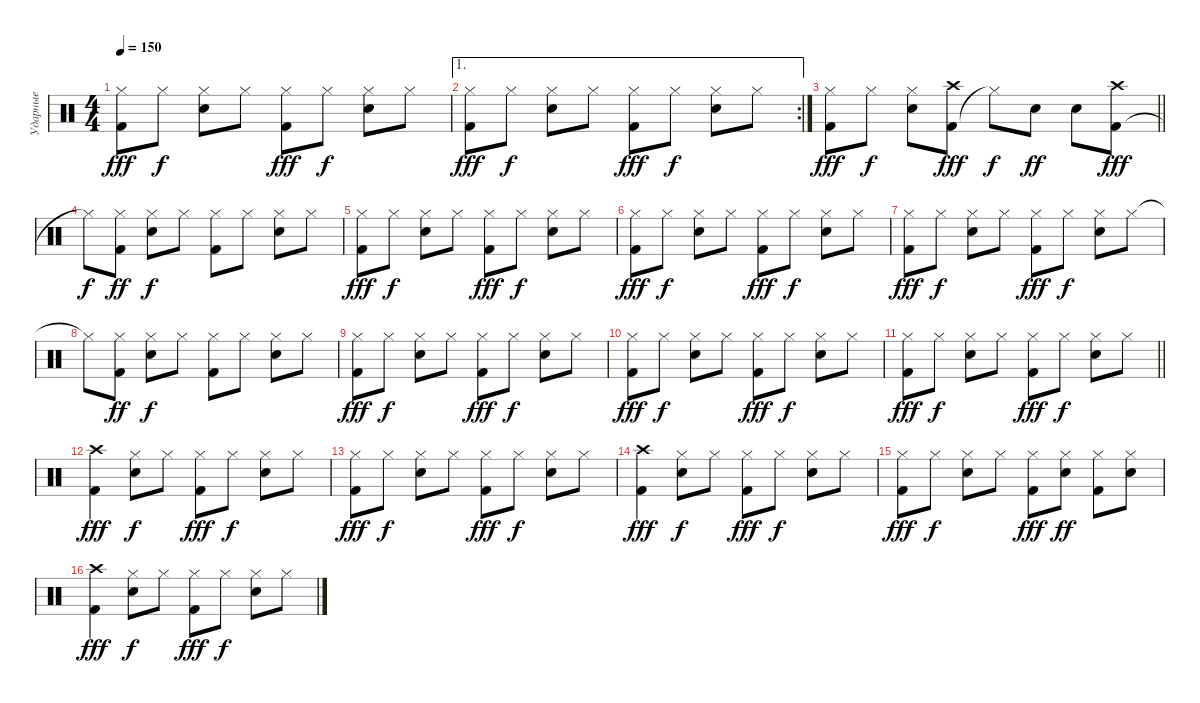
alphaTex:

\track ("Ударные" "Ударные") {instrument percussion}
\staff
\articulation defaults
\ts (4 4)
\tempo 150
\clef neutral
\ks c
("Kick (hit) 2" "Hi-Hat (closed)").8{dy fff} "Hi-Hat (closed)".8{dy f} ("Snare (hit) 2" "Hi-Hat (closed)").8 "Hi-Hat (closed)".8 ("Kick (hit) 2" "Hi-Hat (closed)").8{dy fff} "Hi-Hat (closed)".8{dy f} ("Snare (hit) 2" "Hi-Hat (closed)").8 "Hi-Hat (closed)".8 |
\ae 1
\rc 2
("Kick (hit) 2" "Hi-Hat (closed)").8{dy fff} "Hi-Hat (closed)".8{dy f} ("Snare (hit) 2" "Hi-Hat (closed)").8 "Hi-Hat (closed)".8 ("Kick (hit) 2" "Hi-Hat (closed)").8{dy fff} "Hi-Hat (closed)".8{dy f} ("Snare (hit) 2" "Hi-Hat (closed)").8 "Hi-Hat (closed)".8 |
\barLineRight lightlight
("Kick (hit) 2" "Hi-Hat (closed)").8{dy fff} "Hi-Hat (closed)".8{dy f} ("Snare (hit) 2" "Hi-Hat (closed)").8 ("Kick (hit) 2" "Crash high (hit)").8{dy fff} "Hi-Hat (closed)"{t}.8{dy f} "Snare (hit) 2".8{dy ff} "Snare (hit) 2".8 ("Kick (hit) 2" "Crash high (hit)").8{dy fff} |
"Hi-Hat (closed)"{t}.8{dy f} ("Kick (hit) 2" "Hi-Hat (closed)").8{dy ff} ("Snare (hit) 2" "Hi-Hat (closed)").8{dy f} "Hi-Hat (closed)".8 ("Kick (hit) 2" "Hi-Hat (closed)").8 "Hi-Hat (closed)".8 ("Snare (hit) 2" "Hi-Hat (closed)").8 "Hi-Hat (closed)".8 |
("Kick (hit) 2" "Hi-Hat (closed)").8{dy fff} "Hi-Hat (closed)".8{dy f} ("Snare (hit) 2" "Hi-Hat (closed)").8 "Hi-Hat (closed)".8 ("Kick (hit) 2" "Hi-Hat (closed)").8{dy fff} "Hi-Hat (closed)".8{dy f} ("Snare (hit) 2" "Hi-Hat (closed)").8 "Hi-Hat (closed)".8 |
("Kick (hit) 2" "Hi-Hat (closed)").8{dy fff} "Hi-Hat (closed)".8{dy f} ("Snare (hit) 2" "Hi-Hat (closed)").8 "Hi-Hat (closed)".8 ("Kick (hit) 2" "Hi-Hat (closed)").8{dy fff} "Hi-Hat (closed)".8{dy f} ("Snare (hit) 2" "Hi-Hat (closed)").8 "Hi-Hat (closed)".8 |
("Kick (hit) 2" "Hi-Hat (closed)").8{dy fff} "Hi-Hat (closed)".8{dy f} ("Snare (hit) 2" "Hi-Hat (closed)").8 "Hi-Hat (closed)".8 ("Kick (hit) 2" "Hi-Hat (closed)").8{dy fff} "Hi-Hat (closed)".8{dy f} ("Snare (hit) 2" "Hi-Hat (closed)").8 "Hi-Hat (closed)".8 |
"Hi-Hat (closed)"{t}.8 ("Kick (hit) 2" "Hi-Hat (closed)").8{dy ff} ("Snare (hit) 2" "Hi-Hat (closed)").8{dy f} "Hi-Hat (closed)".8 ("Kick (hit) 2" "Hi-Hat (closed)").8 "Hi-Hat (closed)".8 ("Snare (hit) 2" "Hi-Hat (closed)").8 "Hi-Hat (closed)".8 |
("Kick (hit) 2" "Hi-Hat (closed)").8{dy fff} "Hi-Hat (closed)".8{dy f} ("Snare (hit) 2" "Hi-Hat (closed)").8 "Hi-Hat (closed)".8 ("Kick (hit) 2" "Hi-Hat (closed)").8{dy fff} "Hi-Hat (closed)".8{dy f} ("Snare (hit) 2" "Hi-Hat (closed)").8 "Hi-Hat (closed)".8 |
("Kick (hit) 2" "Hi-Hat (closed)").8{dy fff} "Hi-Hat (closed)".8{dy f} ("Snare (hit) 2" "Hi-Hat (closed)").8 "Hi-Hat (closed)".8 ("Kick (hit) 2" "Hi-Hat (closed)").8{dy fff} "Hi-Hat (closed)".8{dy f} ("Snare (hit) 2" "Hi-Hat (closed)").8 "Hi-Hat (closed)".8 |
\barLineRight lightlight
("Kick (hit) 2" "Hi-Hat (closed)").8{dy fff} "Hi-Hat (closed)".8{dy f} ("Snare (hit) 2" "Hi-Hat (closed)").8 "Hi-Hat (closed)".8 ("Kick (hit) 2" "Hi-Hat (closed)").8{dy fff} "Hi-Hat (closed)".8{dy f} ("Snare (hit) 2" "Hi-Hat (closed)").8 "Hi-Hat (closed)".8 |
("Kick (hit) 2" "Crash high (hit)").4{dy fff} ("Snare (hit) 2" "Hi-Hat (closed)").8{dy f} "Hi-Hat (closed)".8 ("Kick (hit) 2" "Hi-Hat (closed)").8{dy fff} "Hi-Hat (closed)".8{dy f} ("Snare (hit) 2" "Hi-Hat (closed)").8 "Hi-Hat (closed)".8 |
("Kick (hit) 2" "Hi-Hat (closed)").8{dy fff} "Hi-Hat (closed)".8{dy f} ("Snare (hit) 2" "Hi-Hat (closed)").8 "Hi-Hat (closed)".8 ("Kick (hit) 2" "Hi-Hat (closed)").8{dy fff} "Hi-Hat (closed)".8{dy f} ("Snare (hit) 2" "Hi-Hat (closed)").8 "Hi-Hat (closed)".8 |
("Kick (hit) 2" "Crash high (hit)").4{dy fff} ("Snare (hit) 2" "Hi-Hat (closed)").8{dy f} "Hi-Hat (closed)".8 ("Kick (hit) 2" "Hi-Hat (closed)").8{dy fff} "Hi-Hat (closed)".8{dy f} ("Snare (hit) 2" "Hi-Hat (closed)").8 "Hi-Hat (closed)".8 |
("Kick (hit) 2" "Hi-Hat (closed)").8{dy fff} "Hi-Hat (closed)".8{dy f} ("Snare (hit) 2" "Hi-Hat (closed)").8 "Hi-Hat (closed)".8 ("Kick (hit) 2" "Hi-Hat (closed)").8{dy fff} ("Snare (hit) 2" "Hi-Hat (closed)").8{dy ff} ("Kick (hit) 2" "Hi-Hat (closed)").8 ("Snare (hit) 2" "Hi-Hat (closed)").8 |
("Kick (hit) 2" "Crash high (hit)").4{dy fff} ("Snare (hit) 2" "Hi-Hat (closed)").8{dy f} "Hi-Hat (closed)".8 ("Kick (hit) 2" "Hi-Hat (closed)").8{dy fff} "Hi-Hat (closed)".8{dy f} ("Snare (hit) 2" "Hi-Hat (closed)").8 "Hi-Hat (closed)".8
